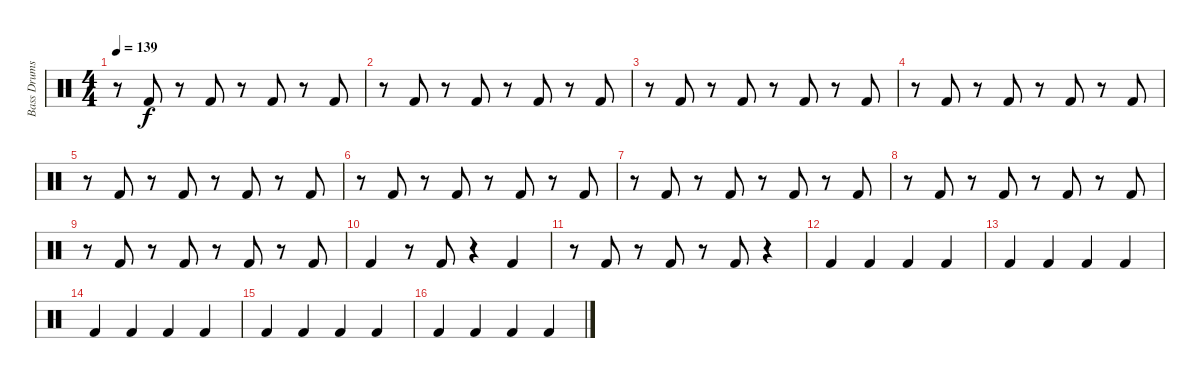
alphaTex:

\track ("Bass Drums" "Bass Drums") {instrument percussion}
\staff {score}
\articulation defaults
\ts (4 4)
\tempo 139
\clef neutral
\ks c
r.8{dy f} "Kick (hit) 2".8 r.8 "Kick (hit) 2".8 r.8 "Kick (hit) 2".8 r.8 "Kick (hit) 2".8 |
r.8 "Kick (hit) 2".8 r.8 "Kick (hit) 2".8 r.8 "Kick (hit) 2".8 r.8 "Kick (hit) 2".8 |
r.8 "Kick (hit) 2".8 r.8 "Kick (hit) 2".8 r.8 "Kick (hit) 2".8 r.8 "Kick (hit) 2".8 |
r.8 "Kick (hit) 2".8 r.8 "Kick (hit) 2".8 r.8 "Kick (hit) 2".8 r.8 "Kick (hit) 2".8 |
r.8 "Kick (hit) 2".8 r.8 "Kick (hit) 2".8 r.8 "Kick (hit) 2".8 r.8 "Kick (hit) 2".8 |
r.8 "Kick (hit) 2".8 r.8 "Kick (hit) 2".8 r.8 "Kick (hit) 2".8 r.8 "Kick (hit) 2".8 |
r.8 "Kick (hit) 2".8 r.8 "Kick (hit) 2".8 r.8 "Kick (hit) 2".8 r.8 "Kick (hit) 2".8 |
r.8 "Kick (hit) 2".8 r.8 "Kick (hit) 2".8 r.8 "Kick (hit) 2".8 r.8 "Kick (hit) 2".8 |
r.8 "Kick (hit) 2".8 r.8 "Kick (hit) 2".8 r.8 "Kick (hit) 2".8 r.8 "Kick (hit) 2".8 |
"Kick (hit) 2".4 r.8 "Kick (hit) 2".8 r.4 "Kick (hit) 2".4 |
r.8 "Kick (hit) 2".8 r.8 "Kick (hit) 2".8 r.8 "Kick (hit) 2".8 r.4 |
"Kick (hit) 2".4 "Kick (hit) 2".4 "Kick (hit) 2".4 "Kick (hit) 2".4 |
"Kick (hit) 2".4 "Kick (hit) 2".4 "Kick (hit) 2".4 "Kick (hit) 2".4 |
"Kick (hit) 2".4 "Kick (hit) 2".4 "Kick (hit) 2".4 "Kick (hit) 2".4 |
"Kick (hit) 2".4 "Kick (hit) 2".4 "Kick (hit) 2".4 "Kick (hit) 2".4 |
"Kick (hit) 2".4 "Kick (hit) 2".4 "Kick (hit) 2".4 "Kick (hit) 2".4
